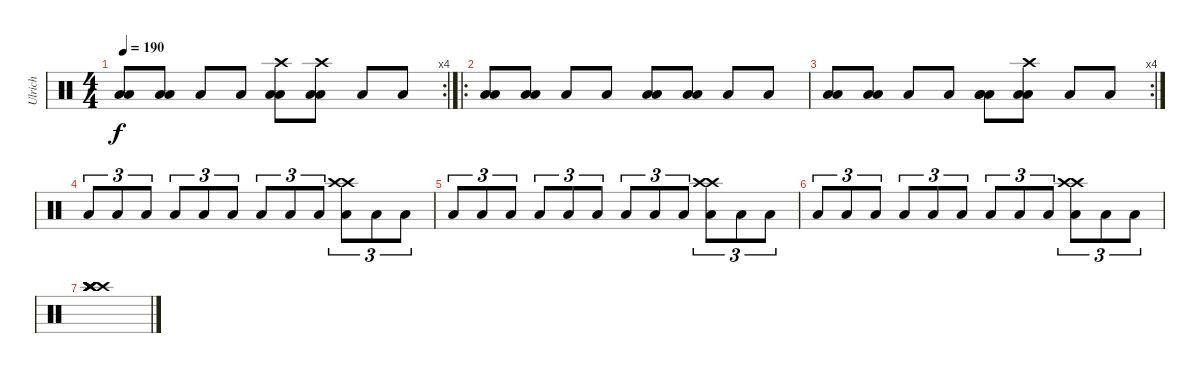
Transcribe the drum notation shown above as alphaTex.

\track ("Ulrich" "Ulrich") {instrument percussion}
\staff {score}
\articulation defaults
\rc 4
\ts (4 4)
\tempo 190
\clef neutral
\ks c
("Low Tom (hit)" "Low Tom (hit)").8{dy f} ("Low Tom (hit)" "Low Tom (hit)").8 "Low Tom (hit)".8 "Low Tom (hit)".8 ("Low Tom (hit)" "Low Tom (hit)" "Crash high (hit)").8 ("Low Tom (hit)" "Low Tom (hit)" "Crash high (hit)").8 "Low Tom (hit)".8 "Low Tom (hit)".8 |
\ro
("Low Tom (hit)" "Low Tom (hit)").8 ("Low Tom (hit)" "Low Tom (hit)").8 "Low Tom (hit)".8 "Low Tom (hit)".8 ("Low Tom (hit)" "Low Tom (hit)").8 ("Low Tom (hit)" "Low Tom (hit)").8 "Low Tom (hit)".8 "Low Tom (hit)".8 |
\rc 4
("Low Tom (hit)" "Low Tom (hit)").8 ("Low Tom (hit)" "Low Tom (hit)").8 "Low Tom (hit)".8 "Low Tom (hit)".8 ("Low Tom (hit)" "Low Tom (hit)" "Low Tom (hit)").8 ("Low Tom (hit)" "Low Tom (hit)" "Crash high (hit)").8 "Low Tom (hit)".8 "Low Tom (hit)".8 |
"Low Tom (hit)".8{tu (3 2) volume 16 balance 8} "Low Tom (hit)".8{tu (3 2)} "Low Tom (hit)".8{tu (3 2)} "Low Tom (hit)".8{tu (3 2)} "Low Tom (hit)".8{tu (3 2)} "Low Tom (hit)".8{tu (3 2)} "Low Tom (hit)".8{tu (3 2)} "Low Tom (hit)".8{tu (3 2)} "Low Tom (hit)".8{tu (3 2)} ("Low Tom (hit)" "Crash high (hit)" "Crash high (hit)").8{tu (3 2)} "Low Tom (hit)".8{tu (3 2)} "Low Tom (hit)".8{tu (3 2)} |
"Low Tom (hit)".8{tu (3 2)} "Low Tom (hit)".8{tu (3 2)} "Low Tom (hit)".8{tu (3 2)} "Low Tom (hit)".8{tu (3 2)} "Low Tom (hit)".8{tu (3 2)} "Low Tom (hit)".8{tu (3 2)} "Low Tom (hit)".8{tu (3 2)} "Low Tom (hit)".8{tu (3 2)} "Low Tom (hit)".8{tu (3 2)} ("Low Tom (hit)" "Crash high (hit)" "Crash high (hit)").8{tu (3 2)} "Low Tom (hit)".8{tu (3 2)} "Low Tom (hit)".8{tu (3 2)} |
"Low Tom (hit)".8{tu (3 2)} "Low Tom (hit)".8{tu (3 2)} "Low Tom (hit)".8{tu (3 2)} "Low Tom (hit)".8{tu (3 2)} "Low Tom (hit)".8{tu (3 2)} "Low Tom (hit)".8{tu (3 2)} "Low Tom (hit)".8{tu (3 2)} "Low Tom (hit)".8{tu (3 2)} "Low Tom (hit)".8{tu (3 2)} ("Low Tom (hit)" "Crash high (hit)" "Crash high (hit)").8{tu (3 2)} "Low Tom (hit)".8{tu (3 2)} "Low Tom (hit)".8{tu (3 2)} |
("Crash high (hit)" "Crash high (hit)" "Crash high (hit)" "Crash high (hit)" "Crash high (hit)" "Crash high (hit)").1
